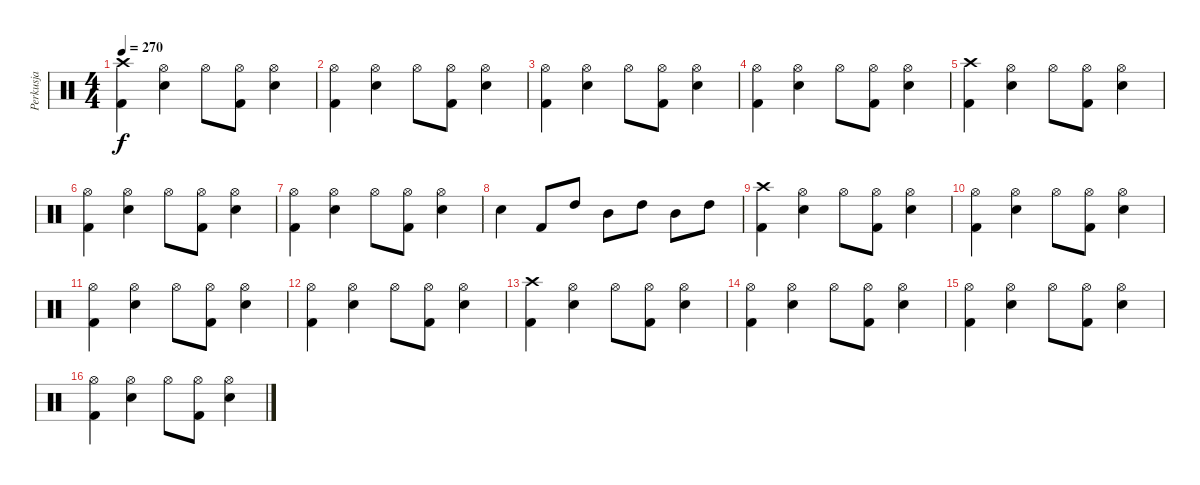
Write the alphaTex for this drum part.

\track ("Perkusja" "Perkusja") {instrument percussion}
\staff {score}
\articulation defaults
\ts (4 4)
\tempo 270
\clef neutral
\ks c
("Crash high (hit)" "Kick (hit) 2").4{dy f} ("Hi-Hat (open)" "Electric Snare (hit)").4 "Hi-Hat (open)".8 ("Hi-Hat (open)" "Kick (hit) 2").8 ("Hi-Hat (open)" "Electric Snare (hit)").4 |
("Hi-Hat (open)" "Kick (hit) 2").4 ("Hi-Hat (open)" "Electric Snare (hit)").4 "Hi-Hat (open)".8 ("Hi-Hat (open)" "Kick (hit) 2").8 ("Hi-Hat (open)" "Electric Snare (hit)").4 |
("Hi-Hat (open)" "Kick (hit) 2").4 ("Hi-Hat (open)" "Electric Snare (hit)").4 "Hi-Hat (open)".8 ("Hi-Hat (open)" "Kick (hit) 2").8 ("Hi-Hat (open)" "Electric Snare (hit)").4 |
("Hi-Hat (open)" "Kick (hit) 2").4 ("Hi-Hat (open)" "Electric Snare (hit)").4 "Hi-Hat (open)".8 ("Hi-Hat (open)" "Kick (hit) 2").8 ("Hi-Hat (open)" "Electric Snare (hit)").4 |
("Crash high (hit)" "Kick (hit) 2").4 ("Hi-Hat (open)" "Electric Snare (hit)").4 "Hi-Hat (open)".8 ("Hi-Hat (open)" "Kick (hit) 2").8 ("Hi-Hat (open)" "Electric Snare (hit)").4 |
("Hi-Hat (open)" "Kick (hit) 2").4 ("Hi-Hat (open)" "Electric Snare (hit)").4 "Hi-Hat (open)".8 ("Hi-Hat (open)" "Kick (hit) 2").8 ("Hi-Hat (open)" "Electric Snare (hit)").4 |
("Hi-Hat (open)" "Kick (hit) 2").4 ("Hi-Hat (open)" "Electric Snare (hit)").4 "Hi-Hat (open)".8 ("Hi-Hat (open)" "Kick (hit) 2").8 ("Hi-Hat (open)" "Electric Snare (hit)").4 |
"Electric Snare (hit)".4 "Kick (hit) 2".8 "High Tom (hit)".8 "Mid Tom (hit)".8 "High Tom (hit)".8 "Mid Tom (hit)".8 "High Tom (hit)".8 |
("Crash high (hit)" "Kick (hit) 2").4 ("Hi-Hat (open)" "Electric Snare (hit)").4 "Hi-Hat (open)".8 ("Hi-Hat (open)" "Kick (hit) 2").8 ("Hi-Hat (open)" "Electric Snare (hit)").4 |
("Hi-Hat (open)" "Kick (hit) 2").4 ("Hi-Hat (open)" "Electric Snare (hit)").4 "Hi-Hat (open)".8 ("Hi-Hat (open)" "Kick (hit) 2").8 ("Hi-Hat (open)" "Electric Snare (hit)").4 |
("Hi-Hat (open)" "Kick (hit) 2").4 ("Hi-Hat (open)" "Electric Snare (hit)").4 "Hi-Hat (open)".8 ("Hi-Hat (open)" "Kick (hit) 2").8 ("Hi-Hat (open)" "Electric Snare (hit)").4 |
("Hi-Hat (open)" "Kick (hit) 2").4 ("Hi-Hat (open)" "Electric Snare (hit)").4 "Hi-Hat (open)".8 ("Hi-Hat (open)" "Kick (hit) 2").8 ("Hi-Hat (open)" "Electric Snare (hit)").4 |
("Crash high (hit)" "Kick (hit) 2").4 ("Hi-Hat (open)" "Electric Snare (hit)").4 "Hi-Hat (open)".8 ("Hi-Hat (open)" "Kick (hit) 2").8 ("Hi-Hat (open)" "Electric Snare (hit)").4 |
("Hi-Hat (open)" "Kick (hit) 2").4 ("Hi-Hat (open)" "Electric Snare (hit)").4 "Hi-Hat (open)".8 ("Hi-Hat (open)" "Kick (hit) 2").8 ("Hi-Hat (open)" "Electric Snare (hit)").4 |
("Hi-Hat (open)" "Kick (hit) 2").4 ("Hi-Hat (open)" "Electric Snare (hit)").4 "Hi-Hat (open)".8 ("Hi-Hat (open)" "Kick (hit) 2").8 ("Hi-Hat (open)" "Electric Snare (hit)").4 |
("Hi-Hat (open)" "Kick (hit) 2").4 ("Hi-Hat (open)" "Electric Snare (hit)").4 "Hi-Hat (open)".8 ("Hi-Hat (open)" "Kick (hit) 2").8 ("Hi-Hat (open)" "Electric Snare (hit)").4
